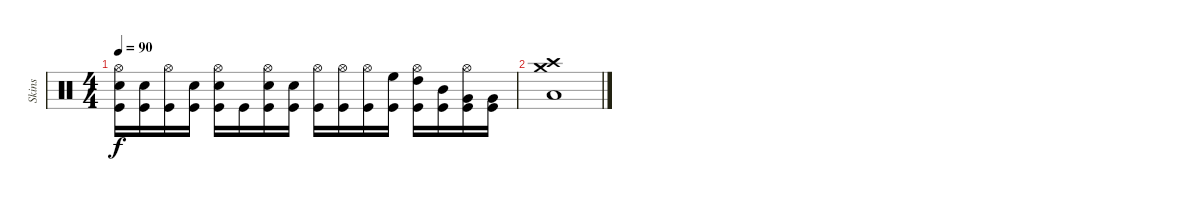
\track ("Skins" "Skins") {instrument percussion}
\staff {score}
\articulation defaults
\ts (4 4)
\tempo 90
\clef neutral
\ks c
("Hi-Hat (open)" "Snare (hit) 2" "Kick (hit)").16{dy f} ("Snare (hit) 2" "Kick (hit)").16 ("Hi-Hat (open)" "Kick (hit)").16 ("Snare (hit) 2" "Kick (hit)").16 ("Hi-Hat (open)" "Snare (hit) 2" "Kick (hit)").16 "Kick (hit)".16 ("Hi-Hat (open)" "Snare (hit) 2" "Kick (hit)").16 ("Snare (hit) 2" "Kick (hit)").16 ("Hi-Hat (open)" "Kick (hit)").16 ("Hi-Hat (open)" "Kick (hit)").16 ("Hi-Hat (open)" "Kick (hit)").16 ("High Floor Tom (hit)" "Kick (hit)").16 ("Hi-Hat (open)" "High Tom (hit)" "Kick (hit)").16 ("Mid Tom (hit)" "Kick (hit)").16 ("Hi-Hat (open)" "Very Low Tom (hit)" "Kick (hit)").16 ("Very Low Tom (hit)" "Kick (hit)").16 |
("Crash medium (hit)" "Crash high (hit)" "Low Floor Tom (hit)").1
